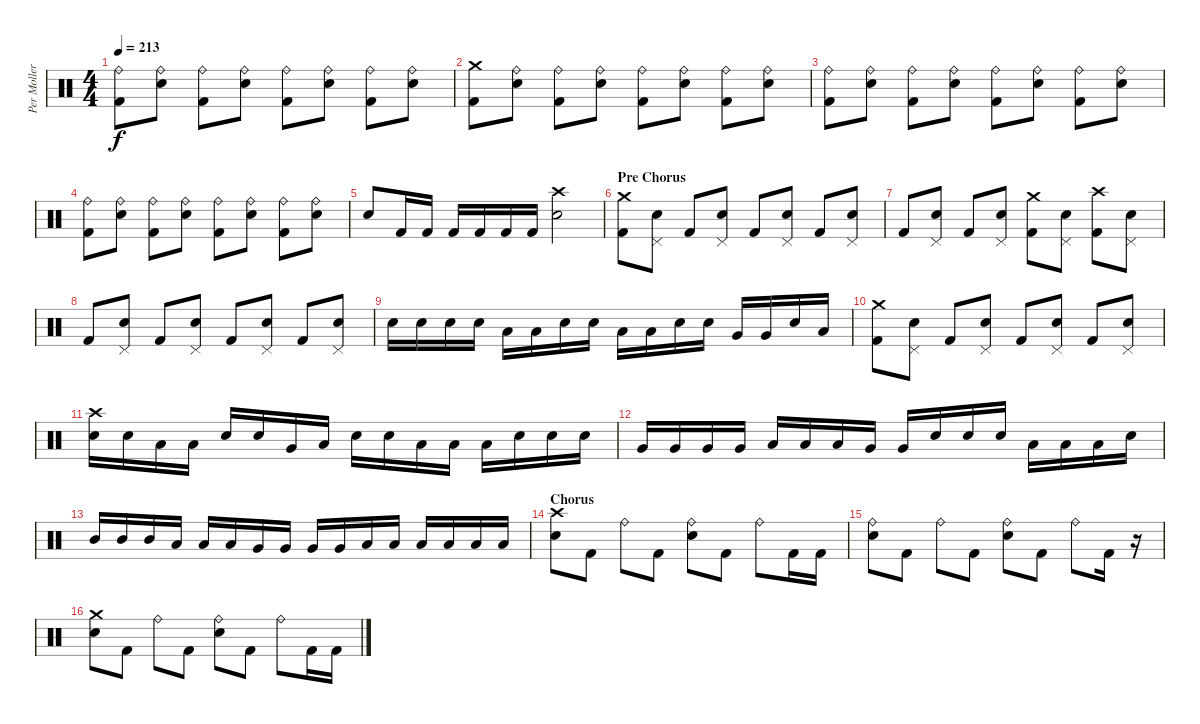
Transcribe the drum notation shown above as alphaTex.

\track ("Per Moller Jensen" "Per Moller") {instrument percussion}
\staff {score}
\articulation defaults
\ts (4 4)
\tempo 213
\clef neutral
\ks c
("Ride (bell)" "Kick (hit) 2").8{dy f} ("Ride (bell)" "Snare (hit) 2").8 ("Ride (bell)" "Kick (hit) 2").8 ("Ride (bell)" "Snare (hit) 2").8 ("Ride (bell)" "Kick (hit) 2").8 ("Ride (bell)" "Snare (hit) 2").8 ("Ride (bell)" "Kick (hit) 2").8 ("Ride (bell)" "Snare (hit) 2").8 |
("Crash medium (hit)" "Kick (hit) 2").8 ("Ride (bell)" "Snare (hit) 2").8 ("Ride (bell)" "Kick (hit) 2").8 ("Ride (bell)" "Snare (hit) 2").8 ("Ride (bell)" "Kick (hit) 2").8 ("Ride (bell)" "Snare (hit) 2").8 ("Ride (bell)" "Kick (hit) 2").8 ("Ride (bell)" "Snare (hit) 2").8 |
("Ride (bell)" "Kick (hit) 2").8 ("Ride (bell)" "Snare (hit) 2").8 ("Ride (bell)" "Kick (hit) 2").8 ("Ride (bell)" "Snare (hit) 2").8 ("Ride (bell)" "Kick (hit) 2").8 ("Ride (bell)" "Snare (hit) 2").8 ("Ride (bell)" "Kick (hit) 2").8 ("Ride (bell)" "Snare (hit) 2").8 |
("Ride (bell)" "Kick (hit) 2").8 ("Ride (bell)" "Snare (hit) 2").8 ("Ride (bell)" "Kick (hit) 2").8 ("Ride (bell)" "Snare (hit) 2").8 ("Ride (bell)" "Kick (hit) 2").8 ("Ride (bell)" "Snare (hit) 2").8 ("Ride (bell)" "Kick (hit) 2").8 ("Ride (bell)" "Snare (hit) 2").8 |
"Snare (hit) 2".8 "Kick (hit) 2".16 "Kick (hit) 2".16 "Kick (hit) 2".16 "Kick (hit) 2".16 "Kick (hit) 2".16 "Kick (hit) 2".16 ("Crash high (hit)" "Snare (hit) 2").2 |
\section ("" "Pre Chorus")
("Crash medium (hit)" "Kick (hit) 2").8 ("Pedal Hi-Hat (hit)" "Snare (hit) 2").8 "Kick (hit) 2".8 ("Pedal Hi-Hat (hit)" "Snare (hit) 2").8 "Kick (hit) 2".8 ("Pedal Hi-Hat (hit)" "Snare (hit) 2").8 "Kick (hit) 2".8 ("Pedal Hi-Hat (hit)" "Snare (hit) 2").8 |
"Kick (hit) 2".8 ("Pedal Hi-Hat (hit)" "Snare (hit) 2").8 "Kick (hit) 2".8 ("Pedal Hi-Hat (hit)" "Snare (hit) 2").8 ("Crash medium (hit)" "Kick (hit) 2").8 ("Pedal Hi-Hat (hit)" "Snare (hit) 2").8 ("Crash high (hit)" "Kick (hit) 2").8 ("Pedal Hi-Hat (hit)" "Snare (hit) 2").8 |
"Kick (hit) 2".8 ("Pedal Hi-Hat (hit)" "Snare (hit) 2").8 "Kick (hit) 2".8 ("Pedal Hi-Hat (hit)" "Snare (hit) 2").8 "Kick (hit) 2".8 ("Pedal Hi-Hat (hit)" "Snare (hit) 2").8 "Kick (hit) 2".8 ("Pedal Hi-Hat (hit)" "Snare (hit) 2").8 |
"Snare (hit) 2".16 "Snare (hit) 2".16 "Snare (hit) 2".16 "Snare (hit) 2".16 "Low Floor Tom (hit)".16 "Low Floor Tom (hit)".16 "Snare (hit) 2".16 "Snare (hit) 2".16 "Low Floor Tom (hit)".16 "Low Floor Tom (hit)".16 "Snare (hit) 2".16 "Snare (hit) 2".16 "Very Low Tom (hit)".16 "Very Low Tom (hit)".16 "Snare (hit) 2".16 "Low Floor Tom (hit)".16 |
("Crash medium (hit)" "Kick (hit) 2").8 ("Pedal Hi-Hat (hit)" "Snare (hit) 2").8 "Kick (hit) 2".8 ("Pedal Hi-Hat (hit)" "Snare (hit) 2").8 "Kick (hit) 2".8 ("Pedal Hi-Hat (hit)" "Snare (hit) 2").8 "Kick (hit) 2".8 ("Pedal Hi-Hat (hit)" "Snare (hit) 2").8 |
("Crash high (hit)" "Snare (hit) 2").16 "Snare (hit) 2".16 "Low Tom (hit)".16 "Low Tom (hit)".16 "Snare (hit) 2".16 "Snare (hit) 2".16 "Very Low Tom (hit)".16 "Low Floor Tom (hit)".16 "Snare (hit) 2".16 "Snare (hit) 2".16 "Low Floor Tom (hit)".16 "Low Floor Tom (hit)".16 "Low Floor Tom (hit)".16 "Snare (hit) 2".16 "Snare (hit) 2".16 "Snare (hit) 2".16 |
"Very Low Tom (hit)".16 "Very Low Tom (hit)".16 "Very Low Tom (hit)".16 "Very Low Tom (hit)".16 "Low Floor Tom (hit)".16 "Low Floor Tom (hit)".16 "Low Floor Tom (hit)".16 "Very Low Tom (hit)".16 "Very Low Tom (hit)".16 "Snare (hit) 2".16 "Snare (hit) 2".16 "Snare (hit) 2".16 "Low Floor Tom (hit)".16 "Low Floor Tom (hit)".16 "Low Floor Tom (hit)".16 "Snare (hit) 2".16 |
"Mid Tom (hit)".16 "Mid Tom (hit)".16 "Mid Tom (hit)".16 "Low Tom (hit)".16 "Low Tom (hit)".16 "Low Tom (hit)".16 "Very Low Tom (hit)".16 "Very Low Tom (hit)".16 "Very Low Tom (hit)".16 "Very Low Tom (hit)".16 "Low Floor Tom (hit)".16 "Low Floor Tom (hit)".16 "Low Floor Tom (hit)".16 "Low Floor Tom (hit)".16 "Low Floor Tom (hit)".16 "Low Floor Tom (hit)".16 |
\section ("" "Chorus")
("Crash high (hit)" "Snare (hit) 2").8 "Kick (hit) 2".8 "Ride (bell)".8 "Kick (hit) 2".8 ("Ride (bell)" "Snare (hit) 2").8 "Kick (hit) 2".8 "Ride (bell)".8 "Kick (hit) 2".16 "Kick (hit) 2".16 |
("Ride (bell)" "Snare (hit) 2").8 "Kick (hit) 2".8 "Ride (bell)".8 "Kick (hit) 2".8 ("Ride (bell)" "Snare (hit) 2").8 "Kick (hit) 2".8 "Ride (bell)".8 "Kick (hit) 2".16 r.16 |
("Crash medium (hit)" "Snare (hit) 2").8 "Kick (hit) 2".8 "Ride (bell)".8 "Kick (hit) 2".8 ("Ride (bell)" "Snare (hit) 2").8 "Kick (hit) 2".8 "Ride (bell)".8 "Kick (hit) 2".16 "Kick (hit) 2".16
